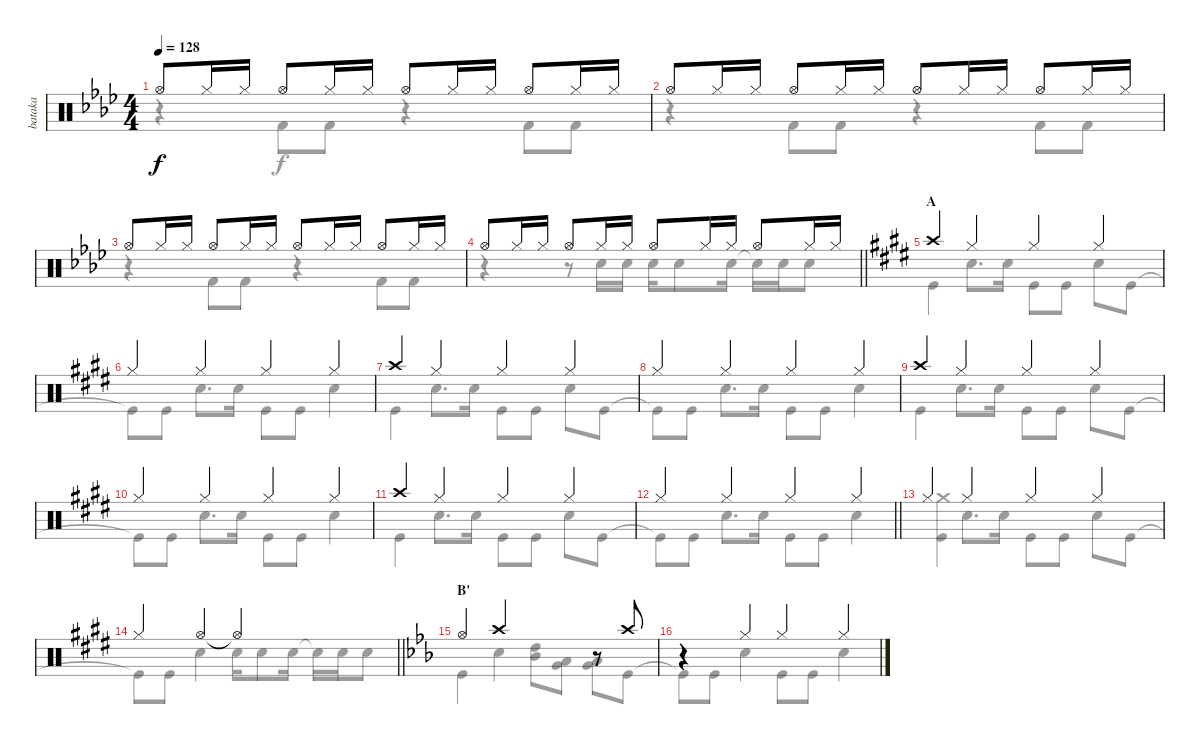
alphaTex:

\track ("bataka" "bataka") {mute instrument percussion}
\staff {score}
\articulation defaults
\voice
\ts (4 4)
\tempo 128
\clef neutral
\ks fminor "Hi-Hat (open)".8{dy f} "Hi-Hat (closed)".16 "Hi-Hat (closed)".16 "Hi-Hat (open)".8 "Hi-Hat (closed)".16 "Hi-Hat (closed)".16 "Hi-Hat (open)".8 "Hi-Hat (closed)".16 "Hi-Hat (closed)".16 "Hi-Hat (open)".8 "Hi-Hat (closed)".16 "Hi-Hat (closed)".16
|
"Hi-Hat (open)".8 "Hi-Hat (closed)".16 "Hi-Hat (closed)".16 "Hi-Hat (open)".8 "Hi-Hat (closed)".16 "Hi-Hat (closed)".16 "Hi-Hat (open)".8 "Hi-Hat (closed)".16 "Hi-Hat (closed)".16 "Hi-Hat (open)".8 "Hi-Hat (closed)".16 "Hi-Hat (closed)".16 |
"Hi-Hat (open)".8 "Hi-Hat (closed)".16 "Hi-Hat (closed)".16 "Hi-Hat (open)".8 "Hi-Hat (closed)".16 "Hi-Hat (closed)".16 "Hi-Hat (open)".8 "Hi-Hat (closed)".16 "Hi-Hat (closed)".16 "Hi-Hat (open)".8 "Hi-Hat (closed)".16 "Hi-Hat (closed)".16 |
\barLineRight lightlight "Hi-Hat (open)".8 "Hi-Hat (closed)".16 "Hi-Hat (closed)".16 "Hi-Hat (open)".8 "Hi-Hat (closed)".16 "Hi-Hat (closed)".16 "Hi-Hat (open)".8 "Hi-Hat (closed)".16 "Hi-Hat (closed)".16 "Hi-Hat (open)".8 "Hi-Hat (closed)".16 "Hi-Hat (closed)".16
|
\section ("" "A")
\ks e "Crash high (hit)".4 "Hi-Hat (closed)".4 "Hi-Hat (closed)".4 "Hi-Hat (closed)".4
|
"Hi-Hat (closed)".4 "Hi-Hat (closed)".4 "Hi-Hat (closed)".4 "Hi-Hat (closed)".4 |
"Crash high (hit)".4 "Hi-Hat (closed)".4 "Hi-Hat (closed)".4 "Hi-Hat (closed)".4 |
"Hi-Hat (closed)".4 "Hi-Hat (closed)".4 "Hi-Hat (closed)".4 "Hi-Hat (closed)".4 |
"Crash high (hit)".4 "Hi-Hat (closed)".4 "Hi-Hat (closed)".4 "Hi-Hat (closed)".4 |
"Hi-Hat (closed)".4 "Hi-Hat (closed)".4 "Hi-Hat (closed)".4 "Hi-Hat (closed)".4 |
"Crash high (hit)".4 "Hi-Hat (closed)".4 "Hi-Hat (closed)".4 "Hi-Hat (closed)".4 |
\barLineRight lightlight "Hi-Hat (closed)".4 "Hi-Hat (closed)".4 "Hi-Hat (closed)".4 "Hi-Hat (closed)".4
|
\section ("" "")
"Hi-Hat (closed)".4 "Hi-Hat (closed)".4 "Hi-Hat (closed)".4 "Hi-Hat (closed)".4 |
\barLineRight lightlight "Hi-Hat (closed)".4 "Hi-Hat (open)".4 "Hi-Hat (open)"{t}.2
|
\section ("" "B'")
\ks eb "Hi-Hat (open)".4 "Crash high (hit)".2
r.8 "Crash high (hit)".8 |
r.4 "Hi-Hat (closed)".4 "Hi-Hat (closed)".4 "Hi-Hat (closed)".4
\voice
\clef neutral
\ottava regular
\simile none
\ks fminor
r.4{dy f} "Kick (hit) 2".8 "Kick (hit) 2".8 r.4 "Kick (hit) 2".8 "Kick (hit) 2".8 |
r.4 "Kick (hit) 2".8 "Kick (hit) 2".8 r.4 "Kick (hit) 2".8 "Kick (hit) 2".8 |
r.4 "Kick (hit) 2".8 "Kick (hit) 2".8 r.4 "Kick (hit) 2".8 "Kick (hit) 2".8 |
\barLineRight lightlight
r.4 r.8 "Snare (hit) 2".16 "Snare (hit) 2".16 "Snare (hit) 2".16 "Snare (hit) 2".8 "Snare (hit) 2".16 "Snare (hit) 2"{t}.16 "Snare (hit) 2".16 "Snare (hit) 2".8 |
\ks e "Kick (hit)".4 "Snare (hit) 2".8{d} "Snare (hit) 2".16 "Kick (hit)".8 "Kick (hit)".8 "Snare (hit) 2".8 "Kick (hit)".8
|
"Kick (hit)"{t}.8 "Kick (hit)".8 "Snare (hit) 2".8{d} "Snare (hit) 2".16 "Kick (hit)".8 "Kick (hit)".8 "Snare (hit) 2".4 |
"Kick (hit)".4 "Snare (hit) 2".8{d} "Snare (hit) 2".16 "Kick (hit)".8 "Kick (hit)".8 "Snare (hit) 2".8 "Kick (hit)".8 |
"Kick (hit)"{t}.8 "Kick (hit)".8 "Snare (hit) 2".8{d} "Snare (hit) 2".16 "Kick (hit)".8 "Kick (hit)".8 "Snare (hit) 2".4 |
"Kick (hit)".4 "Snare (hit) 2".8{d} "Snare (hit) 2".16 "Kick (hit)".8 "Kick (hit)".8 "Snare (hit) 2".8 "Kick (hit)".8 |
"Kick (hit)"{t}.8 "Kick (hit)".8 "Snare (hit) 2".8{d} "Snare (hit) 2".16 "Kick (hit)".8 "Kick (hit)".8 "Snare (hit) 2".4 |
"Kick (hit)".4 "Snare (hit) 2".8{d} "Snare (hit) 2".16 "Kick (hit)".8 "Kick (hit)".8 "Snare (hit) 2".8 "Kick (hit)".8 |
\barLineRight lightlight "Kick (hit)"{t}.8 "Kick (hit)".8 "Snare (hit) 2".8{d} "Snare (hit) 2".16 "Kick (hit)".8 "Kick (hit)".8 "Snare (hit) 2".4
|
("Kick (hit)" "Crash medium (hit)").4 "Snare (hit) 2".8{d} "Snare (hit) 2".16 "Kick (hit)".8 "Kick (hit)".8 "Snare (hit) 2".8 "Kick (hit)".8 |
\barLineRight lightlight "Kick (hit)"{t}.8 "Kick (hit)".8 "Snare (hit) 2".4 "Snare (hit) 2".16 "Snare (hit) 2".8 "Snare (hit) 2".16 "Snare (hit) 2"{t}.16 "Snare (hit) 2".16 "Snare (hit) 2".8
|
\ks eb "Kick (hit)".4 "Snare (hit) 2".4
("High Tom (hit)" "Mid Tom (hit)").8 ("Low Tom (hit)" "Very Low Tom (hit)").8 ("Low Floor Tom (hit)" "Very Low Tom (hit)").8 "Kick (hit)".8 |
"Kick (hit)"{t}.8 "Kick (hit)".8 "Snare (hit) 2".4 "Kick (hit)".8 "Kick (hit)".8 "Snare (hit) 2".4
